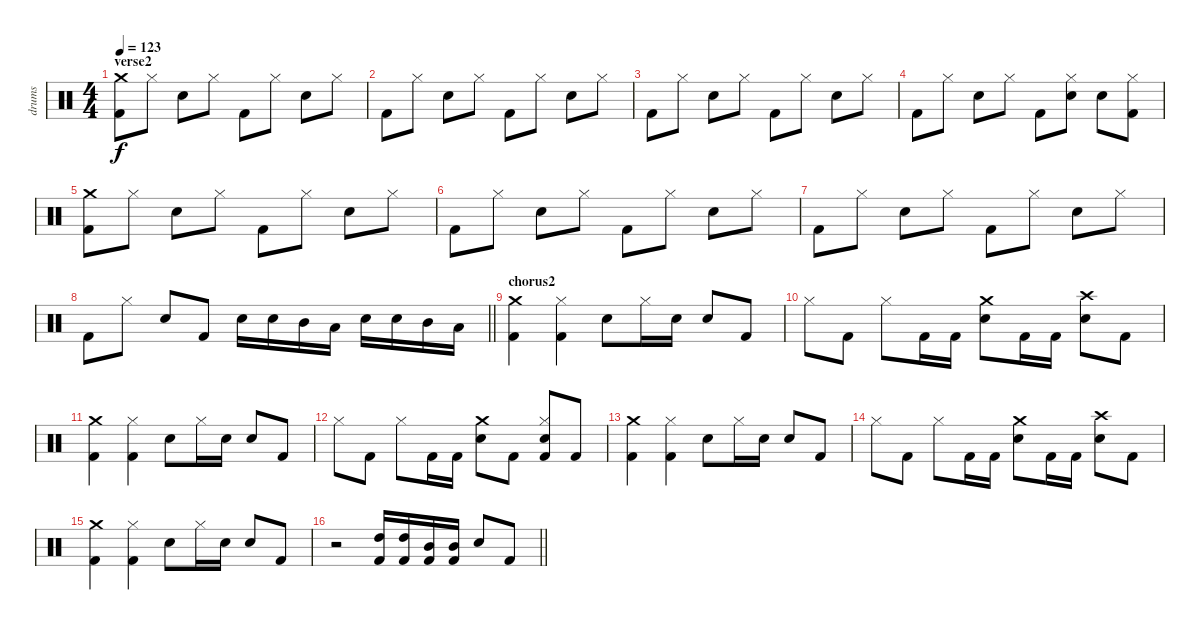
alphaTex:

\track ("drums" "drums") {instrument percussion}
\staff {score}
\articulation defaults
\ts (4 4)
\section ("" "verse2")
\tempo 123
\clef neutral
\ks c
("Crash medium (hit)" "Kick (hit) 2").8{dy f} "Hi-Hat (closed)".8 "Snare (hit) 2".8 "Hi-Hat (closed)".8 "Kick (hit) 2".8 "Hi-Hat (closed)".8 "Snare (hit) 2".8 "Hi-Hat (closed)".8 |
"Kick (hit) 2".8 "Hi-Hat (closed)".8 "Snare (hit) 2".8 "Hi-Hat (closed)".8 "Kick (hit) 2".8 "Hi-Hat (closed)".8 "Snare (hit) 2".8 "Hi-Hat (closed)".8 |
"Kick (hit) 2".8 "Hi-Hat (closed)".8 "Snare (hit) 2".8 "Hi-Hat (closed)".8 "Kick (hit) 2".8 "Hi-Hat (closed)".8 "Snare (hit) 2".8 "Hi-Hat (closed)".8 |
"Kick (hit) 2".8 "Hi-Hat (closed)".8 "Snare (hit) 2".8 "Hi-Hat (closed)".8 "Kick (hit) 2".8 ("Hi-Hat (closed)" "Snare (hit) 2").8 "Snare (hit) 2".8 ("Hi-Hat (closed)" "Kick (hit) 2").8 |
("Crash medium (hit)" "Kick (hit) 2").8 "Hi-Hat (closed)".8 "Snare (hit) 2".8 "Hi-Hat (closed)".8 "Kick (hit) 2".8 "Hi-Hat (closed)".8 "Snare (hit) 2".8 "Hi-Hat (closed)".8 |
"Kick (hit) 2".8 "Hi-Hat (closed)".8 "Snare (hit) 2".8 "Hi-Hat (closed)".8 "Kick (hit) 2".8 "Hi-Hat (closed)".8 "Snare (hit) 2".8 "Hi-Hat (closed)".8 |
"Kick (hit) 2".8 "Hi-Hat (closed)".8 "Snare (hit) 2".8 "Hi-Hat (closed)".8 "Kick (hit) 2".8 "Hi-Hat (closed)".8 "Snare (hit) 2".8 "Hi-Hat (closed)".8 |
\barLineRight lightlight "Kick (hit) 2".8 "Hi-Hat (closed)".8 "Snare (hit) 2".8 "Kick (hit) 2".8 "Snare (hit) 2".16 "Snare (hit) 2".16 "Mid Tom (hit)".16 "Low Tom (hit)".16 "Snare (hit) 2".16 "Snare (hit) 2".16 "Mid Tom (hit)".16 "Low Tom (hit)".16
|
\section ("" "chorus2")
("Crash medium (hit)" "Kick (hit) 2").4 ("Hi-Hat (closed)" "Kick (hit) 2").4 "Snare (hit) 2".8 "Hi-Hat (closed)".16 "Snare (hit) 2".16 "Snare (hit) 2".8 "Kick (hit) 2".8 |
"Hi-Hat (closed)".8 "Kick (hit) 2".8 "Hi-Hat (closed)".8 "Kick (hit) 2".16 "Kick (hit) 2".16 ("Crash medium (hit)" "Snare (hit) 2").8 "Kick (hit) 2".16 "Kick (hit) 2".16 ("Crash high (hit)" "Snare (hit) 2").8 "Kick (hit) 2".8 |
("Crash medium (hit)" "Kick (hit) 2").4 ("Hi-Hat (closed)" "Kick (hit) 2").4 "Snare (hit) 2".8 "Hi-Hat (closed)".16 "Snare (hit) 2".16 "Snare (hit) 2".8 "Kick (hit) 2".8 |
"Hi-Hat (closed)".8 "Kick (hit) 2".8 "Hi-Hat (closed)".8 "Kick (hit) 2".16 "Kick (hit) 2".16 ("Crash medium (hit)" "Snare (hit) 2").8 "Kick (hit) 2".8 ("Hi-Hat (closed)" "Snare (hit) 2" "Kick (hit) 2").8 "Kick (hit) 2".8 |
("Crash medium (hit)" "Kick (hit) 2").4 ("Hi-Hat (closed)" "Kick (hit) 2").4 "Snare (hit) 2".8 "Hi-Hat (closed)".16 "Snare (hit) 2".16 "Snare (hit) 2".8 "Kick (hit) 2".8 |
"Hi-Hat (closed)".8 "Kick (hit) 2".8 "Hi-Hat (closed)".8 "Kick (hit) 2".16 "Kick (hit) 2".16 ("Crash medium (hit)" "Snare (hit) 2").8 "Kick (hit) 2".16 "Kick (hit) 2".16 ("Crash high (hit)" "Snare (hit) 2").8 "Kick (hit) 2".8 |
("Crash medium (hit)" "Kick (hit) 2").4 ("Hi-Hat (closed)" "Kick (hit) 2").4 "Snare (hit) 2".8 "Hi-Hat (closed)".16 "Snare (hit) 2".16 "Snare (hit) 2".8 "Kick (hit) 2".8 |
\barLineRight lightlight
r.2 ("High Tom (hit)" "Kick (hit) 2").16 ("High Tom (hit)" "Kick (hit) 2").16 ("Mid Tom (hit)" "Kick (hit) 2").16 ("Mid Tom (hit)" "Kick (hit) 2").16 "Snare (hit) 2".8 "Kick (hit) 2".8
